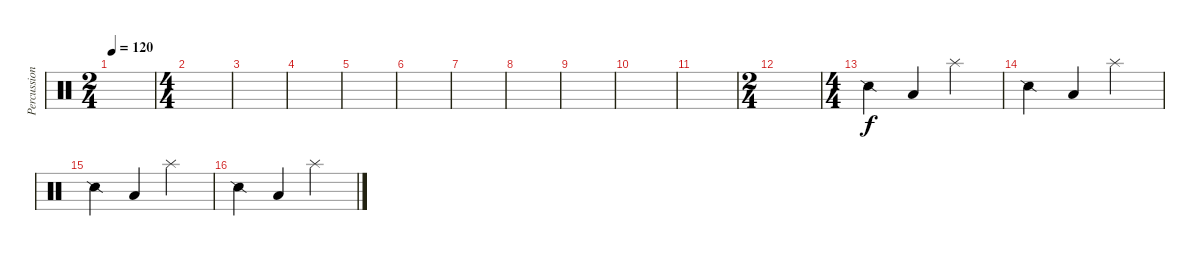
\track ("Percussions" "Percussion") {instrument percussion}
\staff {score}
\articulation defaults
\ts (2 4)
\tempo 120
\clef neutral
\ks c
|
\ts (4 4)
|
|
|
|
|
|
|
|
|
|
\ts (2 4)
|
\ts (4 4)
"Snare (side stick) 2".4 "Low Tom (hit)".4 "Splash (hit)".2 |
"Snare (side stick) 2".4 "Low Tom (hit)".4 "Splash (hit)".2 |
"Snare (side stick) 2".4 "Low Tom (hit)".4 "Splash (hit)".2 |
"Snare (side stick) 2".4 "Low Tom (hit)".4 "Splash (hit)".2
